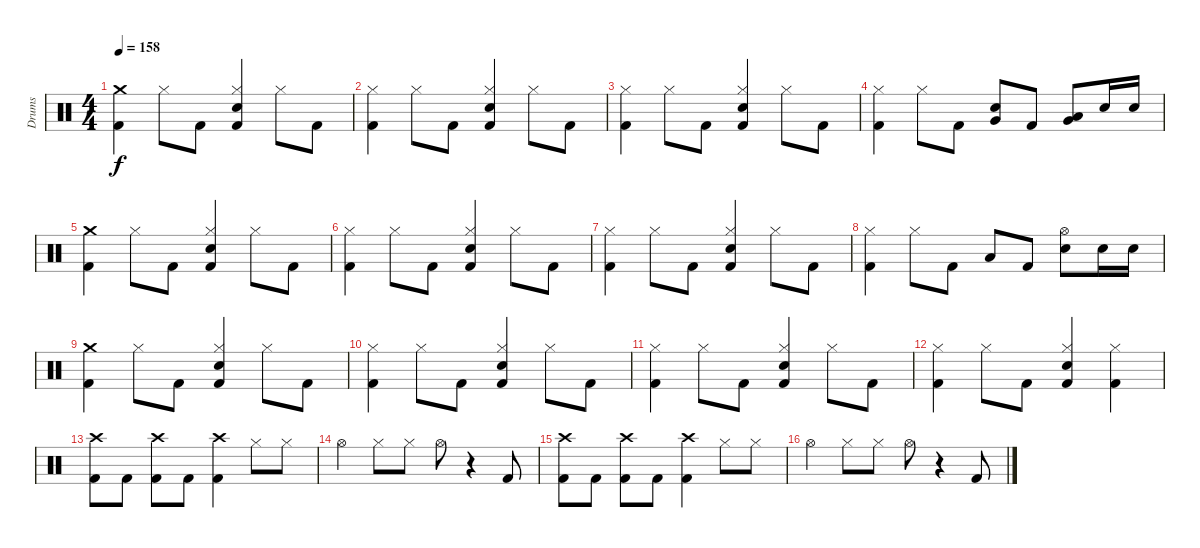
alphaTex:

\track ("Drums" "Drums") {instrument percussion}
\staff {score}
\articulation defaults
\ts (4 4)
\tempo 158
\clef neutral
\ks c
("Crash medium (hit)" "Kick (hit) 2").4{dy f} "Hi-Hat (closed)".8 "Kick (hit) 2".8 ("Hi-Hat (closed)" "Electric Snare (hit)" "Kick (hit) 2").4 "Hi-Hat (closed)".8 "Kick (hit) 2".8 |
("Hi-Hat (closed)" "Kick (hit) 2").4 "Hi-Hat (closed)".8 "Kick (hit) 2".8 ("Hi-Hat (closed)" "Electric Snare (hit)" "Kick (hit) 2").4 "Hi-Hat (closed)".8 "Kick (hit) 2".8 |
("Hi-Hat (closed)" "Kick (hit) 2").4 "Hi-Hat (closed)".8 "Kick (hit) 2".8 ("Hi-Hat (closed)" "Electric Snare (hit)" "Kick (hit) 2").4 "Hi-Hat (closed)".8 "Kick (hit) 2".8 |
("Hi-Hat (closed)" "Kick (hit) 2").4 "Hi-Hat (closed)".8 "Kick (hit) 2".8 ("Electric Snare (hit)" "Very Low Tom (hit)").8 "Kick (hit) 2".8 ("Very Low Tom (hit)" "Low Floor Tom (hit)").8 "Electric Snare (hit)".16 "Electric Snare (hit)".16 |
("Crash medium (hit)" "Kick (hit) 2").4 "Hi-Hat (closed)".8 "Kick (hit) 2".8 ("Hi-Hat (closed)" "Electric Snare (hit)" "Kick (hit) 2").4 "Hi-Hat (closed)".8 "Kick (hit) 2".8 |
("Hi-Hat (closed)" "Kick (hit) 2").4 "Hi-Hat (closed)".8 "Kick (hit) 2".8 ("Hi-Hat (closed)" "Electric Snare (hit)" "Kick (hit) 2").4 "Hi-Hat (closed)".8 "Kick (hit) 2".8 |
("Hi-Hat (closed)" "Kick (hit) 2").4 "Hi-Hat (closed)".8 "Kick (hit) 2".8 ("Hi-Hat (closed)" "Electric Snare (hit)" "Kick (hit) 2").4 "Hi-Hat (closed)".8 "Kick (hit) 2".8 |
("Hi-Hat (closed)" "Kick (hit) 2").4 "Hi-Hat (closed)".8 "Kick (hit) 2".8 "Low Floor Tom (hit)".8 "Kick (hit) 2".8 ("Electric Snare (hit)" "Hi-Hat (open)").8 "Electric Snare (hit)".16 "Electric Snare (hit)".16 |
("Crash medium (hit)" "Kick (hit) 2").4 "Hi-Hat (closed)".8 "Kick (hit) 2".8 ("Hi-Hat (closed)" "Electric Snare (hit)" "Kick (hit) 2").4 "Hi-Hat (closed)".8 "Kick (hit) 2".8 |
("Hi-Hat (closed)" "Kick (hit) 2").4 "Hi-Hat (closed)".8 "Kick (hit) 2".8 ("Hi-Hat (closed)" "Electric Snare (hit)" "Kick (hit) 2").4 "Hi-Hat (closed)".8 "Kick (hit) 2".8 |
("Hi-Hat (closed)" "Kick (hit) 2").4 "Hi-Hat (closed)".8 "Kick (hit) 2".8 ("Hi-Hat (closed)" "Electric Snare (hit)" "Kick (hit) 2").4 "Hi-Hat (closed)".8 "Kick (hit) 2".8 |
("Hi-Hat (closed)" "Kick (hit) 2").4 "Hi-Hat (closed)".8 "Kick (hit) 2".8 ("Hi-Hat (closed)" "Electric Snare (hit)" "Kick (hit) 2").4 ("Hi-Hat (closed)" "Kick (hit) 2").4 |
("Crash high (hit)" "Kick (hit) 2").8 "Kick (hit) 2".8 ("Crash high (hit)" "Kick (hit) 2").8 "Kick (hit) 2".8 ("Crash high (hit)" "Kick (hit) 2").4 "Hi-Hat (closed)".8 "Hi-Hat (closed)".8 |
"Hi-Hat (open)".4 "Hi-Hat (closed)".8 "Hi-Hat (closed)".8 "Hi-Hat (open)".8 r.4 "Kick (hit) 2".8 |
("Crash high (hit)" "Kick (hit) 2").8 "Kick (hit) 2".8 ("Crash high (hit)" "Kick (hit) 2").8 "Kick (hit) 2".8 ("Crash high (hit)" "Kick (hit) 2").4 "Hi-Hat (closed)".8 "Hi-Hat (closed)".8 |
"Hi-Hat (open)".4 "Hi-Hat (closed)".8 "Hi-Hat (closed)".8 "Hi-Hat (open)".8 r.4 "Kick (hit) 2".8
